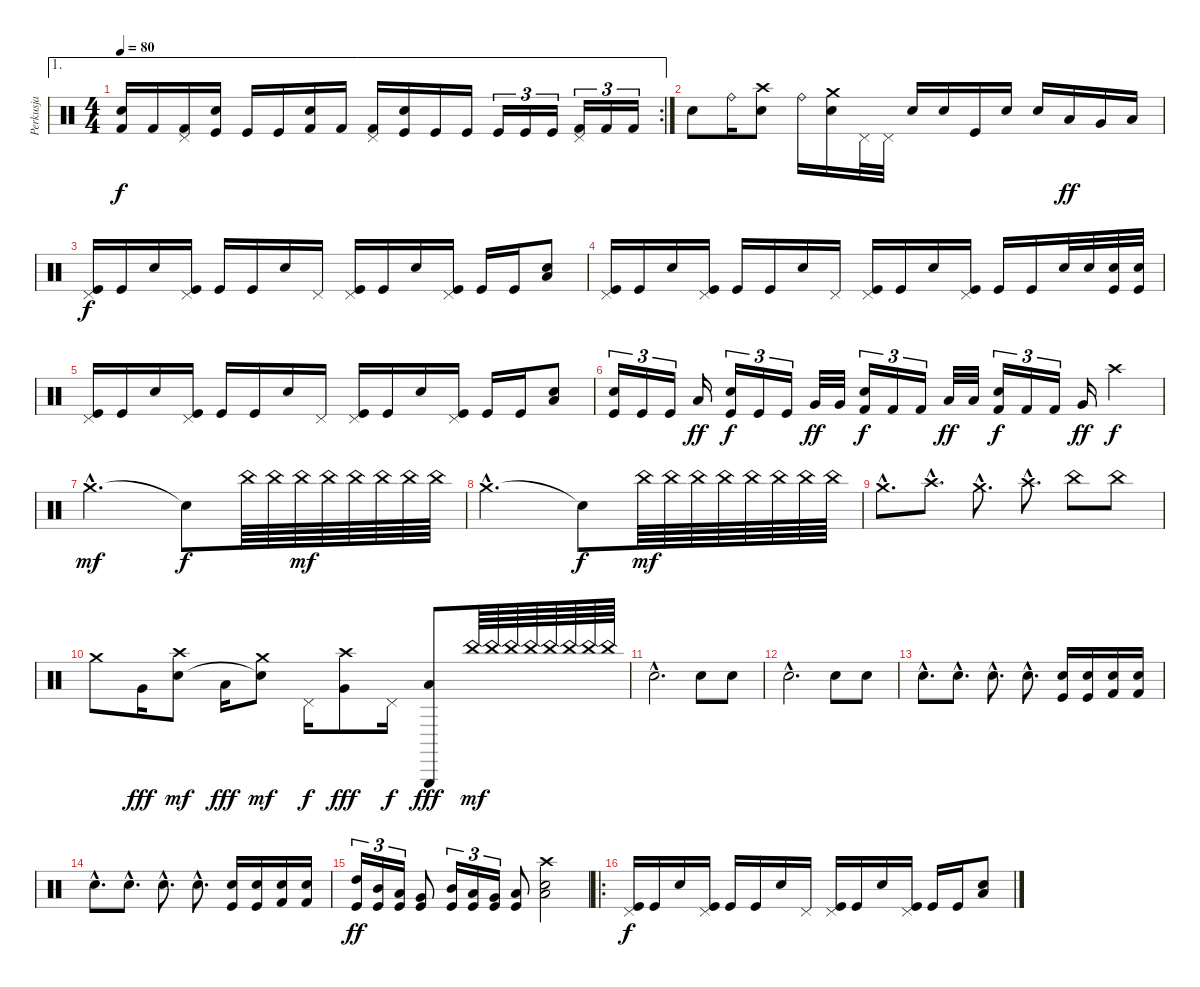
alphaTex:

\track ("Perkusja" "Perkusja") {instrument percussion}
\staff {score}
\articulation defaults
\ae 1
\rc 2
\ts (4 4)
\tempo 80
\clef neutral
\ks c
("Kick (hit) 2" "Electric Snare (hit)").16{dy f} "Kick (hit) 2".16 ("Kick (hit) 2" "Pedal Hi-Hat (hit)").16 ("Kick (hit)" "Snare (hit) 2").16 "Kick (hit)".16 "Kick (hit)".16 ("Kick (hit) 2" "Electric Snare (hit)").16 "Kick (hit) 2".16 ("Kick (hit) 2" "Pedal Hi-Hat (hit)").16 ("Kick (hit)" "Snare (hit) 2").16 "Kick (hit)".16 "Kick (hit)".16 "Kick (hit)".16{tu (3 2)} "Kick (hit)".16{tu (3 2)} "Kick (hit)".16{tu (3 2)} ("Kick (hit) 2" "Pedal Hi-Hat (hit)").16{tu (3 2)} "Kick (hit) 2".16{tu (3 2)} "Kick (hit) 2".16{tu (3 2)} |
"Electric Snare (hit)".8 "Ride (bell)".16 ("Electric Snare (hit)" "Crash high (hit)").8 "Ride (bell)".16 ("Electric Snare (hit)" "Crash medium (hit)").16 "Pedal Hi-Hat (hit)".32 "Pedal Hi-Hat (hit)".32 "Electric Snare (hit)".16 "Snare (hit) 2".16 "Kick (hit)".16 "Electric Snare (hit)".16 "Snare (hit) 2".16 "Low Tom (hit)".16{dy ff} "Very Low Tom (hit)".16 "Low Floor Tom (hit)".16 |
("Kick (hit)" "Pedal Hi-Hat (hit)").16{dy f} "Kick (hit)".16 "Electric Snare (hit)".16 ("Kick (hit)" "Pedal Hi-Hat (hit)").16 "Kick (hit)".16 "Kick (hit)".16 "Electric Snare (hit)".16 "Pedal Hi-Hat (hit)".16 ("Kick (hit)" "Pedal Hi-Hat (hit)").16 "Kick (hit)".16 "Electric Snare (hit)".16 ("Kick (hit)" "Pedal Hi-Hat (hit)").16 "Kick (hit)".16 "Kick (hit)".16 ("Electric Snare (hit)" "Low Tom (hit)").8 |
("Kick (hit)" "Pedal Hi-Hat (hit)").16 "Kick (hit)".16 "Electric Snare (hit)".16 ("Kick (hit)" "Pedal Hi-Hat (hit)").16 "Kick (hit)".16 "Kick (hit)".16 "Electric Snare (hit)".16 "Pedal Hi-Hat (hit)".16 ("Kick (hit)" "Pedal Hi-Hat (hit)").16 "Kick (hit)".16 "Electric Snare (hit)".16 ("Kick (hit)" "Pedal Hi-Hat (hit)").16 "Kick (hit)".16 "Kick (hit)".16 "Electric Snare (hit)".32 "Electric Snare (hit)".32 ("Electric Snare (hit)" "Kick (hit)").32 ("Electric Snare (hit)" "Kick (hit)").32 |
("Kick (hit)" "Pedal Hi-Hat (hit)").16 "Kick (hit)".16 "Electric Snare (hit)".16 ("Kick (hit)" "Pedal Hi-Hat (hit)").16 "Kick (hit)".16 "Kick (hit)".16 "Electric Snare (hit)".16 "Pedal Hi-Hat (hit)".16 ("Kick (hit)" "Pedal Hi-Hat (hit)").16 "Kick (hit)".16 "Electric Snare (hit)".16 ("Kick (hit)" "Pedal Hi-Hat (hit)").16 "Kick (hit)".16 "Kick (hit)".16 ("Electric Snare (hit)" "Low Tom (hit)").8 |
("Kick (hit)" "Snare (hit) 2").16{tu (3 2)} "Kick (hit)".16{tu (3 2)} "Kick (hit)".16{tu (3 2)} "Low Tom (hit)".16{dy ff} ("Kick (hit)" "Snare (hit) 2").16{tu (3 2) dy f} "Kick (hit)".16{tu (3 2)} "Kick (hit)".16{tu (3 2)} "Very Low Tom (hit)".32{dy ff} "Very Low Tom (hit)".32 ("Kick (hit) 2" "Electric Snare (hit)").16{tu (3 2) dy f} "Kick (hit) 2".16{tu (3 2)} "Kick (hit) 2".16{tu (3 2)} "Low Tom (hit)".32{dy ff} "Low Tom (hit)".32 ("Kick (hit) 2" "Electric Snare (hit)").16{tu (3 2) dy f} "Kick (hit) 2".16{tu (3 2)} "Kick (hit) 2".16{tu (3 2)} "Very Low Tom (hit)".16{dy ff} "Crash high (hit)".4{dy f} |
"Crash medium (hit)"{hac}.2{d dy mf} "Snare (hit)"{t}.8{dy f} "China (hit)".64 "China (hit)".64 "China (hit)".64{dy mf} "China (hit)".64 "China (hit)".64 "China (hit)".64 "China (hit)".64 "China (hit)".64 |
"Crash medium (hit)"{hac}.2{d} "Snare (hit)"{t}.8{dy f} "China (hit)".64{dy mf} "China (hit)".64 "China (hit)".64 "China (hit)".64 "China (hit)".64 "China (hit)".64 "China (hit)".64 "China (hit)".64 |
"Crash medium (hit)"{hac}.8{d} "Crash high (hit)"{hac}.8{d} "Crash medium (hit)"{hac}.8{d} "Crash high (hit)"{hac}.8{d} "China (hit)".8 "China (hit)".8 |
"Crash medium (hit)".8 "Very Low Tom (hit)".16{dy fff} ("Crash high (hit)" "Snare (hit)").8{dy mf} "Low Floor Tom (hit)".16{dy fff} ("Crash medium (hit)" "Snare (hit)"{t}).8{dy mf} "Pedal Hi-Hat (hit)".16{dy f} ("Crash high (hit)" "Very Low Tom (hit)").8{dy fff} "Pedal Hi-Hat (hit)".16{dy f} ("Triangle (hit)" "Low Floor Tom (hit)").8{dy fff} "China (hit)".64{dy mf} "China (hit)".64 "China (hit)".64 "China (hit)".64 "China (hit)".64 "China (hit)".64 "China (hit)".64 "China (hit)".64 |
"Electric Snare (hit)"{hac}.2{d} "Snare (hit) 2".8 "Snare (hit) 2".8 |
"Electric Snare (hit)"{hac}.2{d} "Snare (hit) 2".8 "Snare (hit) 2".8 |
"Electric Snare (hit)"{hac}.8{d} "Snare (hit) 2"{hac}.8{d} "Electric Snare (hit)"{hac}.8{d} "Snare (hit) 2"{hac}.8{d} ("Snare (hit) 2" "Kick (hit)").16 ("Snare (hit) 2" "Kick (hit)").16 ("Electric Snare (hit)" "Kick (hit) 2").16 ("Electric Snare (hit)" "Kick (hit) 2").16 |
"Electric Snare (hit)"{hac}.8{d} "Snare (hit) 2"{hac}.8{d} "Electric Snare (hit)"{hac}.8{d} "Snare (hit) 2"{hac}.8{d} ("Snare (hit) 2" "Kick (hit)").16 ("Snare (hit) 2" "Kick (hit)").16 ("Electric Snare (hit)" "Kick (hit) 2").16 ("Electric Snare (hit)" "Kick (hit) 2").16 |
("Kick (hit)" "High Tom (hit)").16{tu (3 2) dy ff} ("Kick (hit)" "Mid Tom (hit)").16{tu (3 2)} ("Kick (hit)" "Low Tom (hit)").16{tu (3 2)} ("Kick (hit)" "Very Low Tom (hit)").8 ("Kick (hit)" "Mid Tom (hit)").16{tu (3 2)} ("Kick (hit)" "Low Tom (hit)").16{tu (3 2)} ("Kick (hit)" "Very Low Tom (hit)").16{tu (3 2)} ("Kick (hit)" "Low Floor Tom (hit)").8 ("Electric Snare (hit)" "Low Floor Tom (hit)" "Crash high (hit)").2 |
\ro
("Kick (hit)" "Pedal Hi-Hat (hit)").16{dy f} "Kick (hit)".16 "Electric Snare (hit)".16 ("Kick (hit)" "Pedal Hi-Hat (hit)").16 "Kick (hit)".16 "Kick (hit)".16 "Electric Snare (hit)".16 "Pedal Hi-Hat (hit)".16 ("Kick (hit)" "Pedal Hi-Hat (hit)").16 "Kick (hit)".16 "Electric Snare (hit)".16 ("Kick (hit)" "Pedal Hi-Hat (hit)").16 "Kick (hit)".16 "Kick (hit)".16 ("Electric Snare (hit)" "Low Tom (hit)").8
